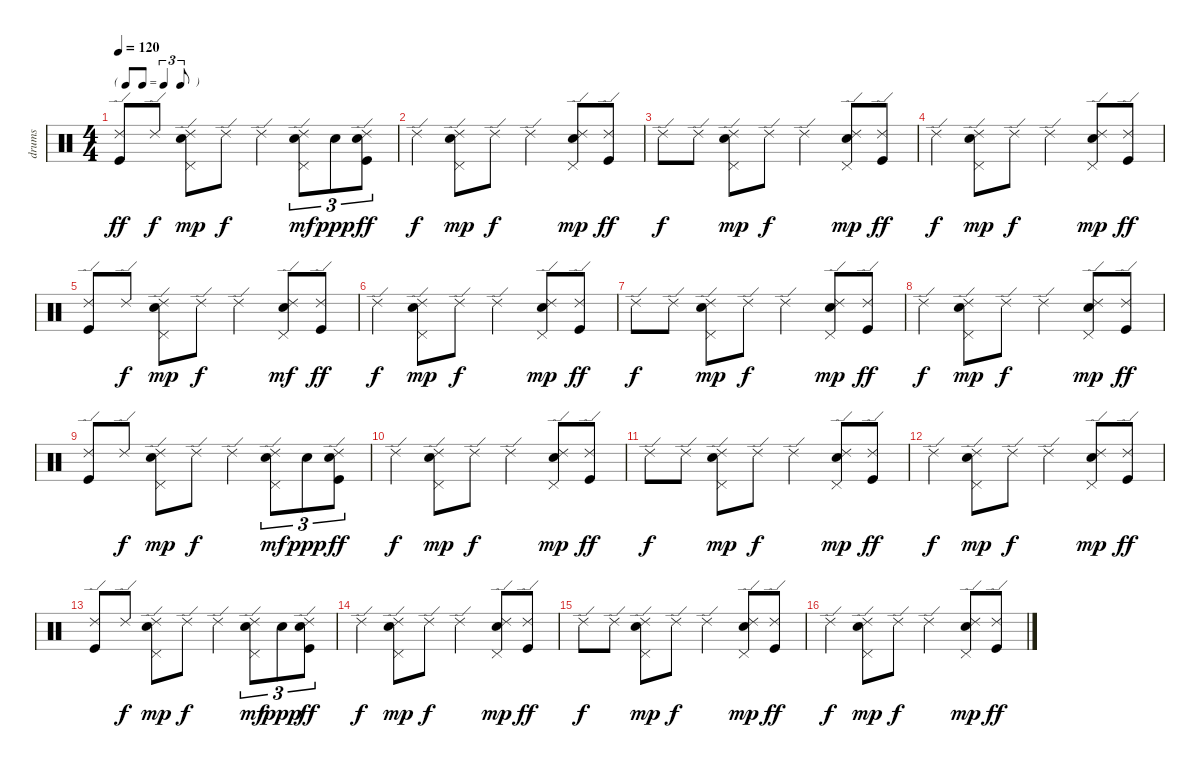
\track ("drums" "drums") {instrument percussion}
\staff {score}
\articulation defaults
\ts (4 4)
\tf triplet8th
\tempo 120
\clef neutral
\ks c
("Ride (edge) 2" "Kick (hit)").8{dy ff} "Ride (edge) 2".8{dy f} ("Ride (edge) 2" "Pedal Hi-Hat (hit)" "Snare (hit) 2").8{dy mp} "Ride (edge) 2".8{dy f} "Ride (edge) 2".4 ("Ride (edge) 2" "Pedal Hi-Hat (hit)" "Snare (hit) 2").8{tu (3 2) dy mf} "Snare (hit) 2".8{tu (3 2) dy ppp} ("Ride (edge) 2" "Snare (hit) 2" "Kick (hit)").8{tu (3 2) dy ff} |
"Ride (edge) 2".4{dy f} ("Ride (edge) 2" "Pedal Hi-Hat (hit)" "Snare (hit) 2").8{dy mp} "Ride (edge) 2".8{dy f} "Ride (edge) 2".4 ("Ride (edge) 2" "Pedal Hi-Hat (hit)" "Snare (hit) 2").8{dy mp} ("Ride (edge) 2" "Kick (hit)").8{dy ff} |
"Ride (edge) 2".8{dy f} "Ride (edge) 2".8 ("Ride (edge) 2" "Pedal Hi-Hat (hit)" "Snare (hit) 2").8{dy mp} "Ride (edge) 2".8{dy f} "Ride (edge) 2".4 ("Ride (edge) 2" "Pedal Hi-Hat (hit)" "Snare (hit) 2").8{dy mp} ("Ride (edge) 2" "Kick (hit)").8{dy ff} |
"Ride (edge) 2".4{dy f} ("Ride (edge) 2" "Pedal Hi-Hat (hit)" "Snare (hit) 2").8{dy mp} "Ride (edge) 2".8{dy f} "Ride (edge) 2".4 ("Ride (edge) 2" "Pedal Hi-Hat (hit)" "Snare (hit) 2").8{dy mp} ("Ride (edge) 2" "Kick (hit)").8{dy ff} |
("Ride (edge) 2" "Kick (hit)").8 "Ride (edge) 2".8{dy f} ("Ride (edge) 2" "Pedal Hi-Hat (hit)" "Snare (hit) 2").8{dy mp} "Ride (edge) 2".8{dy f} "Ride (edge) 2".4 ("Ride (edge) 2" "Pedal Hi-Hat (hit)" "Snare (hit) 2").8{dy mf} ("Ride (edge) 2" "Kick (hit)").8{dy ff} |
"Ride (edge) 2".4{dy f} ("Ride (edge) 2" "Pedal Hi-Hat (hit)" "Snare (hit) 2").8{dy mp} "Ride (edge) 2".8{dy f} "Ride (edge) 2".4 ("Ride (edge) 2" "Pedal Hi-Hat (hit)" "Snare (hit) 2").8{dy mp} ("Ride (edge) 2" "Kick (hit)").8{dy ff} |
"Ride (edge) 2".8{dy f} "Ride (edge) 2".8 ("Ride (edge) 2" "Pedal Hi-Hat (hit)" "Snare (hit) 2").8{dy mp} "Ride (edge) 2".8{dy f} "Ride (edge) 2".4 ("Ride (edge) 2" "Pedal Hi-Hat (hit)" "Snare (hit) 2").8{dy mp} ("Ride (edge) 2" "Kick (hit)").8{dy ff} |
"Ride (edge) 2".4{dy f} ("Ride (edge) 2" "Pedal Hi-Hat (hit)" "Snare (hit) 2").8{dy mp} "Ride (edge) 2".8{dy f} "Ride (edge) 2".4 ("Ride (edge) 2" "Pedal Hi-Hat (hit)" "Snare (hit) 2").8{dy mp} ("Ride (edge) 2" "Kick (hit)").8{dy ff} |
("Ride (edge) 2" "Kick (hit)").8 "Ride (edge) 2".8{dy f} ("Ride (edge) 2" "Pedal Hi-Hat (hit)" "Snare (hit) 2").8{dy mp} "Ride (edge) 2".8{dy f} "Ride (edge) 2".4 ("Ride (edge) 2" "Pedal Hi-Hat (hit)" "Snare (hit) 2").8{tu (3 2) dy mf} "Snare (hit) 2".8{tu (3 2) dy ppp} ("Ride (edge) 2" "Snare (hit) 2" "Kick (hit)").8{tu (3 2) dy ff} |
"Ride (edge) 2".4{dy f} ("Ride (edge) 2" "Pedal Hi-Hat (hit)" "Snare (hit) 2").8{dy mp} "Ride (edge) 2".8{dy f} "Ride (edge) 2".4 ("Ride (edge) 2" "Pedal Hi-Hat (hit)" "Snare (hit) 2").8{dy mp} ("Ride (edge) 2" "Kick (hit)").8{dy ff} |
"Ride (edge) 2".8{dy f} "Ride (edge) 2".8 ("Ride (edge) 2" "Pedal Hi-Hat (hit)" "Snare (hit) 2").8{dy mp} "Ride (edge) 2".8{dy f} "Ride (edge) 2".4 ("Ride (edge) 2" "Pedal Hi-Hat (hit)" "Snare (hit) 2").8{dy mp} ("Ride (edge) 2" "Kick (hit)").8{dy ff} |
"Ride (edge) 2".4{dy f} ("Ride (edge) 2" "Pedal Hi-Hat (hit)" "Snare (hit) 2").8{dy mp} "Ride (edge) 2".8{dy f} "Ride (edge) 2".4 ("Ride (edge) 2" "Pedal Hi-Hat (hit)" "Snare (hit) 2").8{dy mp} ("Ride (edge) 2" "Kick (hit)").8{dy ff} |
("Ride (edge) 2" "Kick (hit)").8 "Ride (edge) 2".8{dy f} ("Ride (edge) 2" "Pedal Hi-Hat (hit)" "Snare (hit) 2").8{dy mp} "Ride (edge) 2".8{dy f} "Ride (edge) 2".4 ("Ride (edge) 2" "Pedal Hi-Hat (hit)" "Snare (hit) 2").8{tu (3 2) dy mf} "Snare (hit) 2".8{tu (3 2) dy ppp} ("Ride (edge) 2" "Snare (hit) 2" "Kick (hit)").8{tu (3 2) dy ff} |
"Ride (edge) 2".4{dy f} ("Ride (edge) 2" "Pedal Hi-Hat (hit)" "Snare (hit) 2").8{dy mp} "Ride (edge) 2".8{dy f} "Ride (edge) 2".4 ("Ride (edge) 2" "Pedal Hi-Hat (hit)" "Snare (hit) 2").8{dy mp} ("Ride (edge) 2" "Kick (hit)").8{dy ff} |
"Ride (edge) 2".8{dy f} "Ride (edge) 2".8 ("Ride (edge) 2" "Pedal Hi-Hat (hit)" "Snare (hit) 2").8{dy mp} "Ride (edge) 2".8{dy f} "Ride (edge) 2".4 ("Ride (edge) 2" "Pedal Hi-Hat (hit)" "Snare (hit) 2").8{dy mp} ("Ride (edge) 2" "Kick (hit)").8{dy ff} |
"Ride (edge) 2".4{dy f} ("Ride (edge) 2" "Pedal Hi-Hat (hit)" "Snare (hit) 2").8{dy mp} "Ride (edge) 2".8{dy f} "Ride (edge) 2".4 ("Ride (edge) 2" "Pedal Hi-Hat (hit)" "Snare (hit) 2").8{dy mp} ("Ride (edge) 2" "Kick (hit)").8{dy ff}
